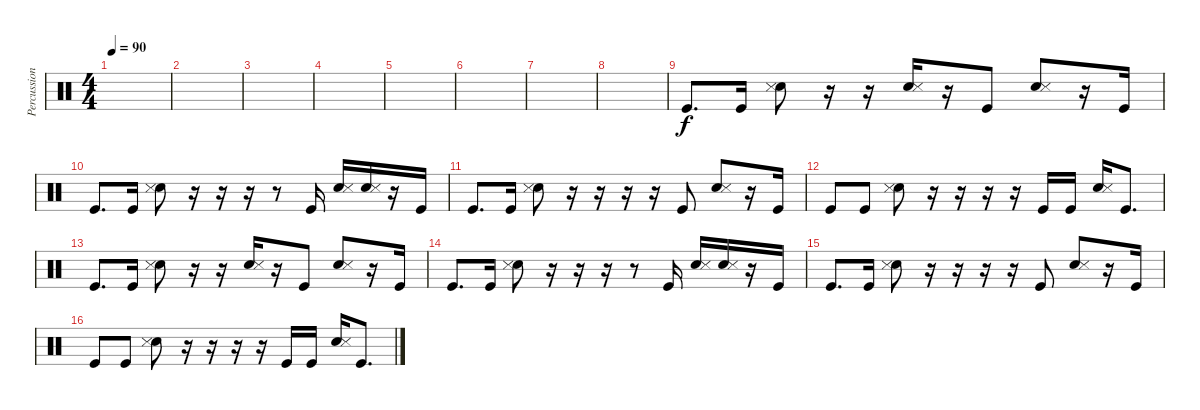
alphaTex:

\track ("Percussion" "Percussion") {instrument percussion}
\staff {score}
\articulation defaults
\ts (4 4)
\tempo 90
\clef neutral
\ks c
|
|
|
|
|
|
|
|
"Kick (hit)".8{d} "Kick (hit)".16 ("Hand Clap (hit)" "Snare (side stick) 3").8 r.16 r.16 ("Hand Clap (hit)" "Snare (side stick) 3").16 r.16 "Kick (hit)".8 ("Hand Clap (hit)" "Snare (side stick) 3").8 r.16 "Kick (hit)".16 |
"Kick (hit)".8{d} "Kick (hit)".16 ("Hand Clap (hit)" "Snare (side stick) 3").8 r.16 r.16 r.16 r.8 "Kick (hit)".16 ("Hand Clap (hit)" "Snare (side stick) 3").16 ("Hand Clap (hit)" "Snare (side stick) 3").16 r.16 "Kick (hit)".16 |
"Kick (hit)".8{d} "Kick (hit)".16 ("Hand Clap (hit)" "Snare (side stick) 3").8 r.16 r.16 r.16 r.16 "Kick (hit)".8 ("Hand Clap (hit)" "Snare (side stick) 3").8 r.16 "Kick (hit)".16 |
"Kick (hit)".8 "Kick (hit)".8 ("Hand Clap (hit)" "Snare (side stick) 3").8 r.16 r.16 r.16 r.16 "Kick (hit)".16 "Kick (hit)".16 ("Hand Clap (hit)" "Snare (side stick) 3").16 "Kick (hit)".8{d} |
"Kick (hit)".8{d} "Kick (hit)".16 ("Hand Clap (hit)" "Snare (side stick) 3").8 r.16 r.16 ("Hand Clap (hit)" "Snare (side stick) 3").16 r.16 "Kick (hit)".8 ("Hand Clap (hit)" "Snare (side stick) 3").8 r.16 "Kick (hit)".16 |
"Kick (hit)".8{d} "Kick (hit)".16 ("Hand Clap (hit)" "Snare (side stick) 3").8 r.16 r.16 r.16 r.8 "Kick (hit)".16 ("Hand Clap (hit)" "Snare (side stick) 3").16 ("Hand Clap (hit)" "Snare (side stick) 3").16 r.16 "Kick (hit)".16 |
"Kick (hit)".8{d} "Kick (hit)".16 ("Hand Clap (hit)" "Snare (side stick) 3").8 r.16 r.16 r.16 r.16 "Kick (hit)".8 ("Hand Clap (hit)" "Snare (side stick) 3").8 r.16 "Kick (hit)".16 |
"Kick (hit)".8 "Kick (hit)".8 ("Hand Clap (hit)" "Snare (side stick) 3").8 r.16 r.16 r.16 r.16 "Kick (hit)".16 "Kick (hit)".16 ("Hand Clap (hit)" "Snare (side stick) 3").16 "Kick (hit)".8{d}
